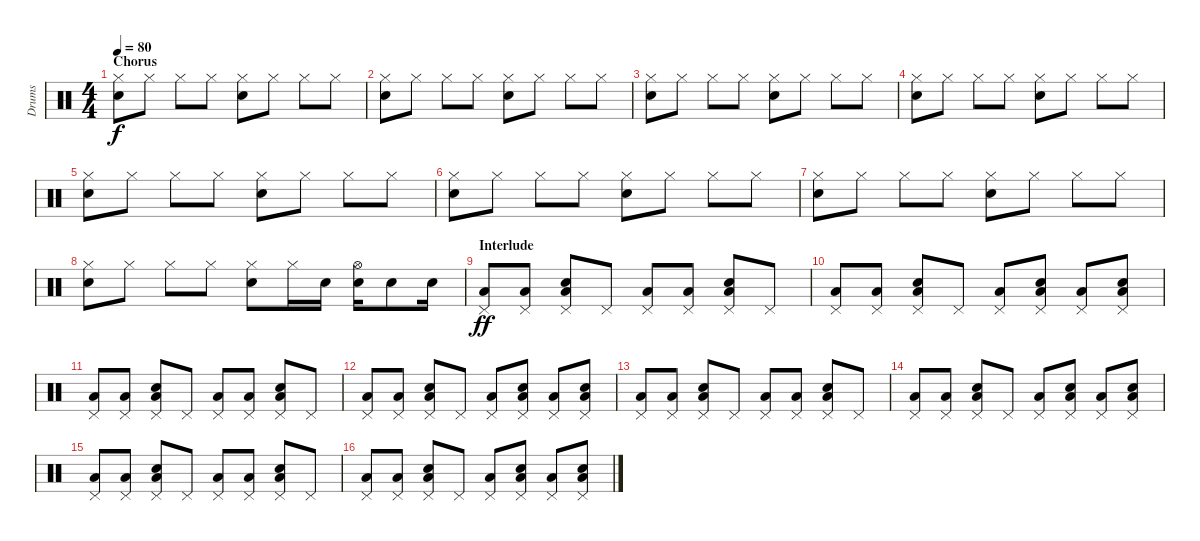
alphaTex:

\track ("Drums" "Drums") {instrument percussion}
\staff {score}
\articulation defaults
\ts (4 4)
\section ("" "Chorus")
\tempo 80
\clef neutral
\ks c
("Hi-Hat (closed)" "Snare (hit) 2").8{dy f} "Hi-Hat (closed)".8 "Hi-Hat (closed)".8 "Hi-Hat (closed)".8 ("Hi-Hat (closed)" "Snare (hit) 2").8 "Hi-Hat (closed)".8 "Hi-Hat (closed)".8 "Hi-Hat (closed)".8 |
("Hi-Hat (closed)" "Snare (hit) 2").8 "Hi-Hat (closed)".8 "Hi-Hat (closed)".8 "Hi-Hat (closed)".8 ("Hi-Hat (closed)" "Snare (hit) 2").8 "Hi-Hat (closed)".8 "Hi-Hat (closed)".8 "Hi-Hat (closed)".8 |
("Hi-Hat (closed)" "Snare (hit) 2").8 "Hi-Hat (closed)".8 "Hi-Hat (closed)".8 "Hi-Hat (closed)".8 ("Hi-Hat (closed)" "Snare (hit) 2").8 "Hi-Hat (closed)".8 "Hi-Hat (closed)".8 "Hi-Hat (closed)".8 |
("Hi-Hat (closed)" "Snare (hit) 2").8 "Hi-Hat (closed)".8 "Hi-Hat (closed)".8 "Hi-Hat (closed)".8 ("Hi-Hat (closed)" "Snare (hit) 2").8 "Hi-Hat (closed)".8 "Hi-Hat (closed)".8 "Hi-Hat (closed)".8 |
("Hi-Hat (closed)" "Snare (hit) 2").8 "Hi-Hat (closed)".8 "Hi-Hat (closed)".8 "Hi-Hat (closed)".8 ("Hi-Hat (closed)" "Snare (hit) 2").8 "Hi-Hat (closed)".8 "Hi-Hat (closed)".8 "Hi-Hat (closed)".8 |
("Hi-Hat (closed)" "Snare (hit) 2").8 "Hi-Hat (closed)".8 "Hi-Hat (closed)".8 "Hi-Hat (closed)".8 ("Hi-Hat (closed)" "Snare (hit) 2").8 "Hi-Hat (closed)".8 "Hi-Hat (closed)".8 "Hi-Hat (closed)".8 |
("Hi-Hat (closed)" "Snare (hit) 2").8 "Hi-Hat (closed)".8 "Hi-Hat (closed)".8 "Hi-Hat (closed)".8 ("Hi-Hat (closed)" "Snare (hit) 2").8 "Hi-Hat (closed)".8 "Hi-Hat (closed)".8 "Hi-Hat (closed)".8 |
("Hi-Hat (closed)" "Snare (hit) 2").8 "Hi-Hat (closed)".8 "Hi-Hat (closed)".8 "Hi-Hat (closed)".8 ("Hi-Hat (closed)" "Snare (hit) 2").8 "Hi-Hat (closed)".16 "Snare (hit) 2".16 ("Hi-Hat (open)" "Snare (hit) 2").16 "Snare (hit) 2".8 "Snare (hit) 2".16 |
\section ("" "Interlude")
("Low Floor Tom (hit)" "Pedal Hi-Hat (hit)").8{dy ff} ("Low Floor Tom (hit)" "Pedal Hi-Hat (hit)").8 ("Electric Snare (hit)" "Low Floor Tom (hit)" "Pedal Hi-Hat (hit)").8 "Pedal Hi-Hat (hit)".8 ("Low Floor Tom (hit)" "Pedal Hi-Hat (hit)").8 ("Low Floor Tom (hit)" "Pedal Hi-Hat (hit)").8 ("Electric Snare (hit)" "Low Floor Tom (hit)" "Pedal Hi-Hat (hit)").8 "Pedal Hi-Hat (hit)".8 |
("Low Floor Tom (hit)" "Pedal Hi-Hat (hit)").8 ("Low Floor Tom (hit)" "Pedal Hi-Hat (hit)").8 ("Electric Snare (hit)" "Low Floor Tom (hit)" "Pedal Hi-Hat (hit)").8 "Pedal Hi-Hat (hit)".8 ("Low Floor Tom (hit)" "Pedal Hi-Hat (hit)").8 ("Electric Snare (hit)" "Low Floor Tom (hit)" "Pedal Hi-Hat (hit)").8 ("Low Floor Tom (hit)" "Pedal Hi-Hat (hit)").8 ("Electric Snare (hit)" "Low Floor Tom (hit)" "Pedal Hi-Hat (hit)").8 |
("Low Floor Tom (hit)" "Pedal Hi-Hat (hit)").8 ("Low Floor Tom (hit)" "Pedal Hi-Hat (hit)").8 ("Electric Snare (hit)" "Low Floor Tom (hit)" "Pedal Hi-Hat (hit)").8 "Pedal Hi-Hat (hit)".8 ("Low Floor Tom (hit)" "Pedal Hi-Hat (hit)").8 ("Low Floor Tom (hit)" "Pedal Hi-Hat (hit)").8 ("Electric Snare (hit)" "Low Floor Tom (hit)" "Pedal Hi-Hat (hit)").8 "Pedal Hi-Hat (hit)".8 |
("Low Floor Tom (hit)" "Pedal Hi-Hat (hit)").8 ("Low Floor Tom (hit)" "Pedal Hi-Hat (hit)").8 ("Electric Snare (hit)" "Low Floor Tom (hit)" "Pedal Hi-Hat (hit)").8 "Pedal Hi-Hat (hit)".8 ("Low Floor Tom (hit)" "Pedal Hi-Hat (hit)").8 ("Electric Snare (hit)" "Low Floor Tom (hit)" "Pedal Hi-Hat (hit)").8 ("Low Floor Tom (hit)" "Pedal Hi-Hat (hit)").8 ("Electric Snare (hit)" "Low Floor Tom (hit)" "Pedal Hi-Hat (hit)").8 |
("Low Floor Tom (hit)" "Pedal Hi-Hat (hit)").8 ("Low Floor Tom (hit)" "Pedal Hi-Hat (hit)").8 ("Electric Snare (hit)" "Low Floor Tom (hit)" "Pedal Hi-Hat (hit)").8 "Pedal Hi-Hat (hit)".8 ("Low Floor Tom (hit)" "Pedal Hi-Hat (hit)").8 ("Low Floor Tom (hit)" "Pedal Hi-Hat (hit)").8 ("Electric Snare (hit)" "Low Floor Tom (hit)" "Pedal Hi-Hat (hit)").8 "Pedal Hi-Hat (hit)".8 |
("Low Floor Tom (hit)" "Pedal Hi-Hat (hit)").8 ("Low Floor Tom (hit)" "Pedal Hi-Hat (hit)").8 ("Electric Snare (hit)" "Low Floor Tom (hit)" "Pedal Hi-Hat (hit)").8 "Pedal Hi-Hat (hit)".8 ("Low Floor Tom (hit)" "Pedal Hi-Hat (hit)").8 ("Electric Snare (hit)" "Low Floor Tom (hit)" "Pedal Hi-Hat (hit)").8 ("Low Floor Tom (hit)" "Pedal Hi-Hat (hit)").8 ("Electric Snare (hit)" "Low Floor Tom (hit)" "Pedal Hi-Hat (hit)").8 |
("Low Floor Tom (hit)" "Pedal Hi-Hat (hit)").8 ("Low Floor Tom (hit)" "Pedal Hi-Hat (hit)").8 ("Electric Snare (hit)" "Low Floor Tom (hit)" "Pedal Hi-Hat (hit)").8 "Pedal Hi-Hat (hit)".8 ("Low Floor Tom (hit)" "Pedal Hi-Hat (hit)").8 ("Low Floor Tom (hit)" "Pedal Hi-Hat (hit)").8 ("Electric Snare (hit)" "Low Floor Tom (hit)" "Pedal Hi-Hat (hit)").8 "Pedal Hi-Hat (hit)".8 |
("Low Floor Tom (hit)" "Pedal Hi-Hat (hit)").8 ("Low Floor Tom (hit)" "Pedal Hi-Hat (hit)").8 ("Electric Snare (hit)" "Low Floor Tom (hit)" "Pedal Hi-Hat (hit)").8 "Pedal Hi-Hat (hit)".8 ("Low Floor Tom (hit)" "Pedal Hi-Hat (hit)").8 ("Electric Snare (hit)" "Low Floor Tom (hit)" "Pedal Hi-Hat (hit)").8 ("Low Floor Tom (hit)" "Pedal Hi-Hat (hit)").8 ("Electric Snare (hit)" "Low Floor Tom (hit)" "Pedal Hi-Hat (hit)").8
